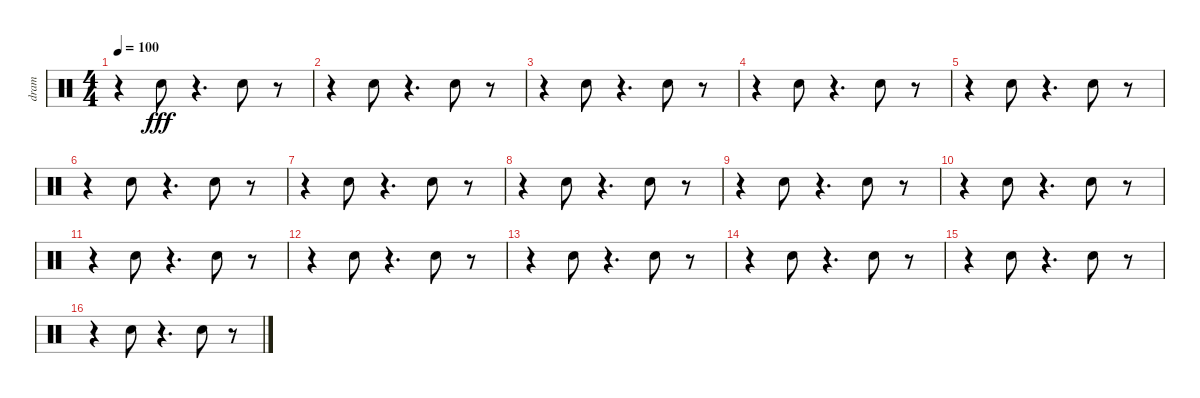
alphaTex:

\track ("dram" "dram") {instrument percussion}
\staff {score}
\articulation defaults
\ts (4 4)
\tempo 100
\clef neutral
\ks c
r.4{dy fff} "Snare (hit) 2".8 r.4{d} "Snare (hit) 2".8 r.8 |
r.4 "Snare (hit) 2".8 r.4{d} "Snare (hit) 2".8 r.8 |
r.4 "Snare (hit) 2".8 r.4{d} "Snare (hit) 2".8 r.8 |
r.4 "Snare (hit) 2".8 r.4{d} "Snare (hit) 2".8 r.8 |
r.4 "Snare (hit) 2".8 r.4{d} "Snare (hit) 2".8 r.8 |
r.4 "Snare (hit) 2".8 r.4{d} "Snare (hit) 2".8 r.8 |
r.4 "Snare (hit) 2".8 r.4{d} "Snare (hit) 2".8 r.8 |
r.4 "Snare (hit) 2".8 r.4{d} "Snare (hit) 2".8 r.8 |
r.4 "Snare (hit) 2".8 r.4{d} "Snare (hit) 2".8 r.8 |
r.4 "Snare (hit) 2".8 r.4{d} "Snare (hit) 2".8 r.8 |
r.4 "Snare (hit) 2".8 r.4{d} "Snare (hit) 2".8 r.8 |
r.4 "Snare (hit) 2".8 r.4{d} "Snare (hit) 2".8 r.8 |
r.4 "Snare (hit) 2".8 r.4{d} "Snare (hit) 2".8 r.8 |
r.4 "Snare (hit) 2".8 r.4{d} "Snare (hit) 2".8 r.8 |
r.4 "Snare (hit) 2".8 r.4{d} "Snare (hit) 2".8 r.8 |
r.4 "Snare (hit) 2".8 r.4{d} "Snare (hit) 2".8 r.8
